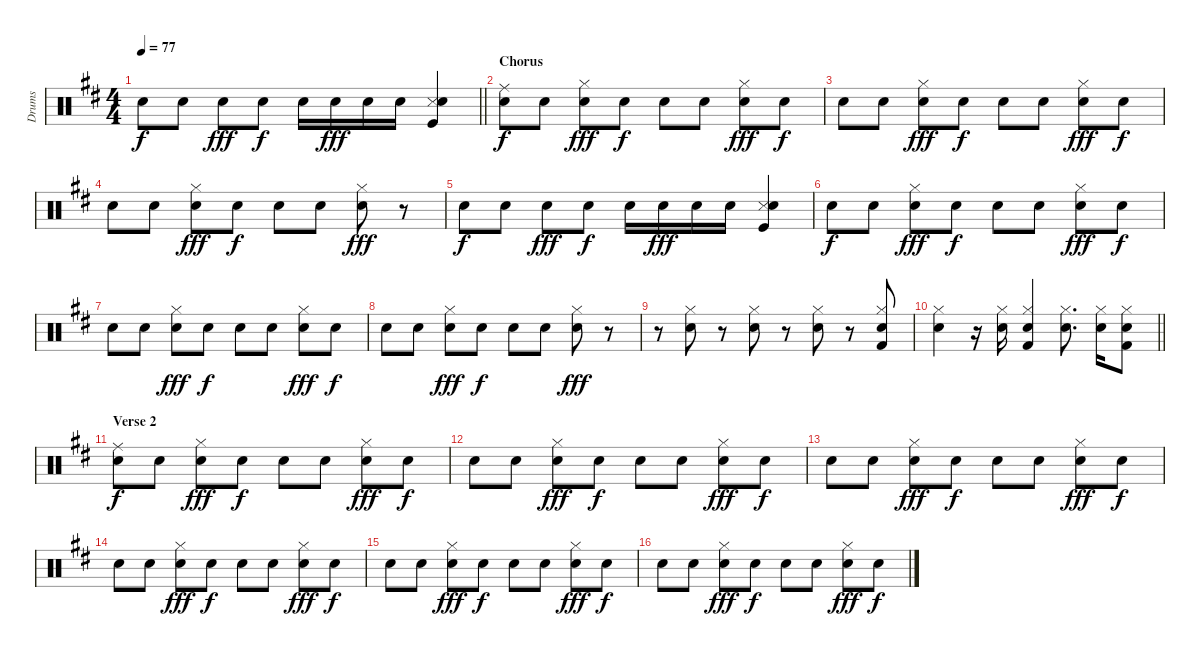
\track ("Drums" "Drums") {instrument percussion}
\staff {score}
\articulation defaults
\ts (4 4)
\tempo 77
\clef neutral
\barLineRight lightlight
\ks d "Snare (hit) 2".8{dy f} "Snare (hit) 2".8 "Snare (hit) 2".8{dy fff} "Snare (hit) 2".8{dy f} "Snare (hit) 2".16 "Snare (hit) 2".16{dy fff} "Snare (hit) 2".16 "Snare (hit) 2".16
("Snare (side stick) 3" "Snare (hit) 2" "Kick (hit)").4 |
\section ("" "Chorus")
("Ride (middle)" "Snare (hit) 2").8{dy f} "Snare (hit) 2".8 ("Hi-Hat (closed)" "Snare (hit) 2").8{dy fff} "Snare (hit) 2".8{dy f} "Snare (hit) 2".8 "Snare (hit) 2".8 ("Hi-Hat (closed)" "Snare (hit) 2").8{dy fff} "Snare (hit) 2".8{dy f} |
"Snare (hit) 2".8 "Snare (hit) 2".8 ("Hi-Hat (closed)" "Snare (hit) 2").8{dy fff} "Snare (hit) 2".8{dy f} "Snare (hit) 2".8 "Snare (hit) 2".8 ("Hi-Hat (closed)" "Snare (hit) 2").8{dy fff} "Snare (hit) 2".8{dy f} |
"Snare (hit) 2".8 "Snare (hit) 2".8 ("Hi-Hat (closed)" "Snare (hit) 2").8{dy fff} "Snare (hit) 2".8{dy f} "Snare (hit) 2".8 "Snare (hit) 2".8 ("Hi-Hat (closed)" "Snare (hit) 2").8{dy fff} r.8 |
"Snare (hit) 2".8{dy f} "Snare (hit) 2".8 "Snare (hit) 2".8{dy fff} "Snare (hit) 2".8{dy f} "Snare (hit) 2".16 "Snare (hit) 2".16{dy fff} "Snare (hit) 2".16 "Snare (hit) 2".16 ("Snare (side stick) 3" "Snare (hit) 2" "Kick (hit)").4 |
"Snare (hit) 2".8{dy f} "Snare (hit) 2".8 ("Hi-Hat (closed)" "Snare (hit) 2").8{dy fff} "Snare (hit) 2".8{dy f} "Snare (hit) 2".8 "Snare (hit) 2".8 ("Hi-Hat (closed)" "Snare (hit) 2").8{dy fff} "Snare (hit) 2".8{dy f} |
"Snare (hit) 2".8 "Snare (hit) 2".8 ("Hi-Hat (closed)" "Snare (hit) 2").8{dy fff} "Snare (hit) 2".8{dy f} "Snare (hit) 2".8 "Snare (hit) 2".8 ("Hi-Hat (closed)" "Snare (hit) 2").8{dy fff} "Snare (hit) 2".8{dy f} |
"Snare (hit) 2".8 "Snare (hit) 2".8 ("Hi-Hat (closed)" "Snare (hit) 2").8{dy fff} "Snare (hit) 2".8{dy f} "Snare (hit) 2".8 "Snare (hit) 2".8 ("Hi-Hat (closed)" "Snare (hit) 2").8{dy fff} r.8 |
r.8 ("Hi-Hat (closed)" "Snare (hit) 2").8 r.8 ("Hi-Hat (closed)" "Snare (hit) 2").8 r.8 ("Hi-Hat (closed)" "Snare (hit) 2").8 r.8 ("Hi-Hat (closed)" "Snare (hit) 2" "Kick (hit) 2").8 |
\barLineRight lightlight
("Hi-Hat (closed)" "Snare (hit) 2").4 r.16 ("Hi-Hat (closed)" "Snare (hit) 2").16 ("Hi-Hat (closed)" "Snare (hit) 2" "Kick (hit) 2").4 ("Hi-Hat (closed)" "Snare (hit) 2").8{d} ("Hi-Hat (closed)" "Snare (hit) 2").16 ("Hi-Hat (closed)" "Snare (hit) 2" "Kick (hit) 2").8 |
\section ("" "Verse 2")
("Ride (middle)" "Snare (hit) 2").8{dy f} "Snare (hit) 2".8 ("Hi-Hat (closed)" "Snare (hit) 2").8{dy fff} "Snare (hit) 2".8{dy f} "Snare (hit) 2".8 "Snare (hit) 2".8 ("Hi-Hat (closed)" "Snare (hit) 2").8{dy fff} "Snare (hit) 2".8{dy f} |
"Snare (hit) 2".8 "Snare (hit) 2".8 ("Hi-Hat (closed)" "Snare (hit) 2").8{dy fff} "Snare (hit) 2".8{dy f} "Snare (hit) 2".8 "Snare (hit) 2".8 ("Hi-Hat (closed)" "Snare (hit) 2").8{dy fff} "Snare (hit) 2".8{dy f} |
"Snare (hit) 2".8 "Snare (hit) 2".8 ("Hi-Hat (closed)" "Snare (hit) 2").8{dy fff} "Snare (hit) 2".8{dy f} "Snare (hit) 2".8 "Snare (hit) 2".8 ("Hi-Hat (closed)" "Snare (hit) 2").8{dy fff} "Snare (hit) 2".8{dy f} |
"Snare (hit) 2".8 "Snare (hit) 2".8 ("Hi-Hat (closed)" "Snare (hit) 2").8{dy fff} "Snare (hit) 2".8{dy f} "Snare (hit) 2".8 "Snare (hit) 2".8 ("Hi-Hat (closed)" "Snare (hit) 2").8{dy fff} "Snare (hit) 2".8{dy f} |
"Snare (hit) 2".8 "Snare (hit) 2".8 ("Hi-Hat (closed)" "Snare (hit) 2").8{dy fff} "Snare (hit) 2".8{dy f} "Snare (hit) 2".8 "Snare (hit) 2".8 ("Hi-Hat (closed)" "Snare (hit) 2").8{dy fff} "Snare (hit) 2".8{dy f} |
"Snare (hit) 2".8 "Snare (hit) 2".8 ("Hi-Hat (closed)" "Snare (hit) 2").8{dy fff} "Snare (hit) 2".8{dy f} "Snare (hit) 2".8 "Snare (hit) 2".8 ("Hi-Hat (closed)" "Snare (hit) 2").8{dy fff} "Snare (hit) 2".8{dy f}
